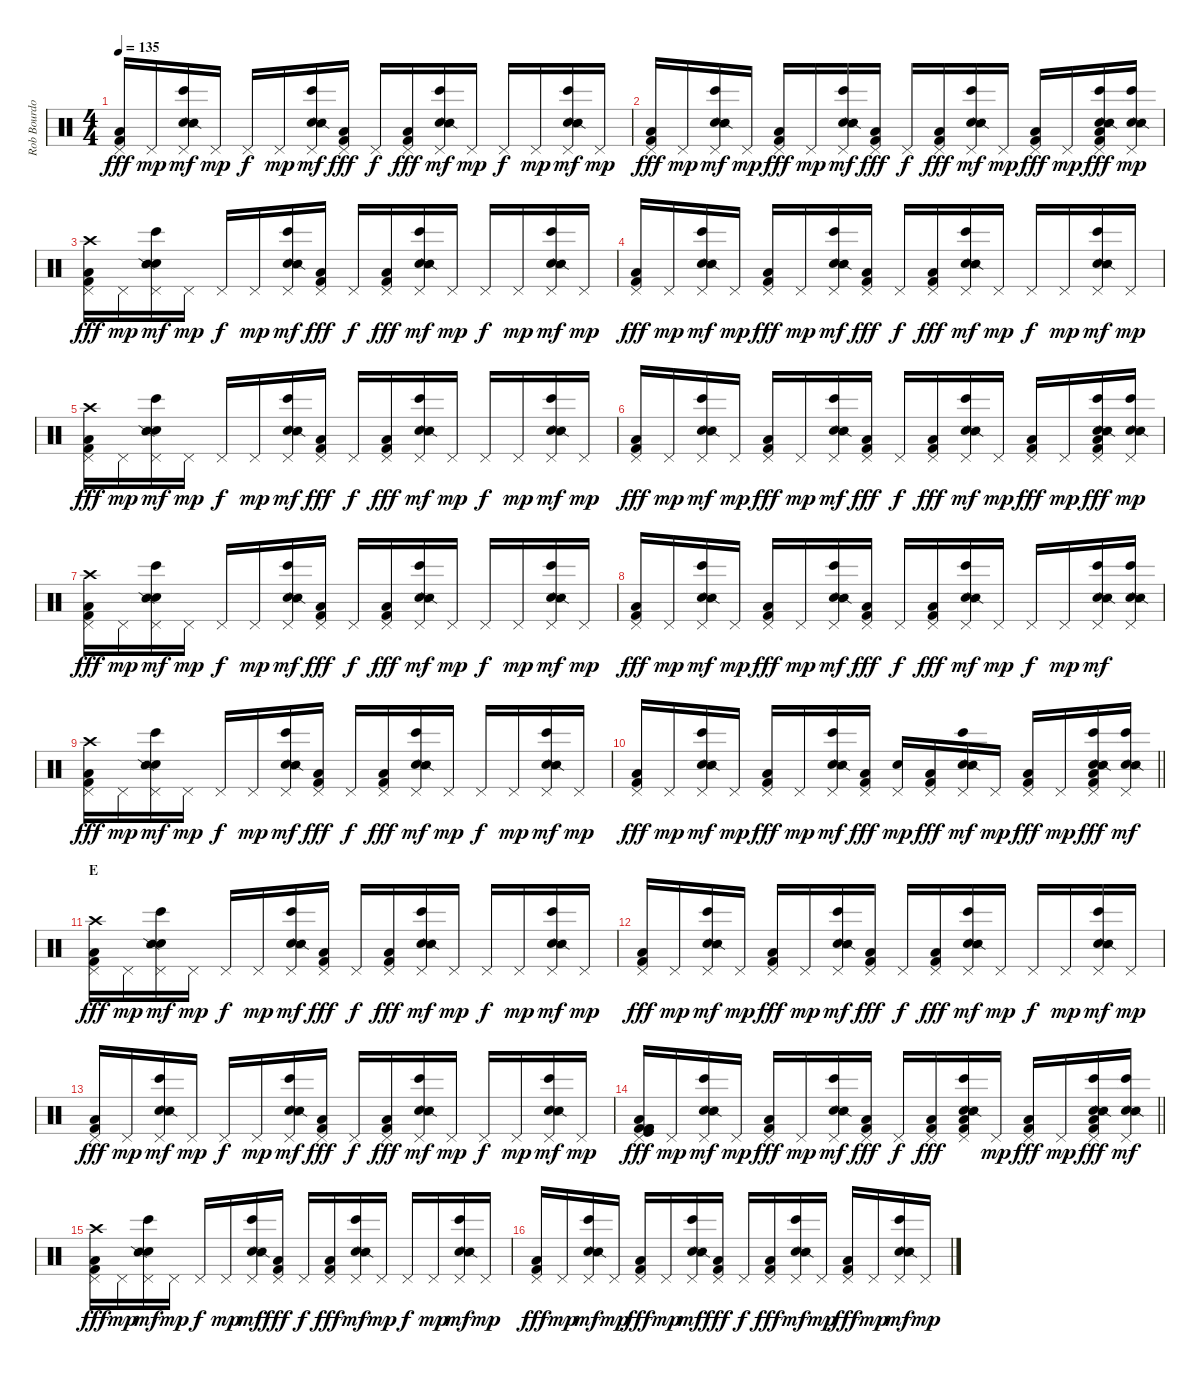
\track ("Rob Bourdon - Beats & Drums" "Rob Bourdo") {instrument percussion}
\staff {score}
\articulation defaults
\ts (4 4)
\tempo 135
\clef neutral
\ks c
("Low Floor Tom (hit)" "Pedal Hi-Hat (hit)" "Kick (hit) 2").16{dy fff} "Pedal Hi-Hat (hit)".16{dy mp} ("Bongo High (hit)" "Electric Snare (hit)" "Snare (side stick) 2" "Pedal Hi-Hat (hit)").16{dy mf} "Pedal Hi-Hat (hit)".16{dy mp} "Pedal Hi-Hat (hit)".16{dy f} "Pedal Hi-Hat (hit)".16{dy mp} ("Bongo High (hit)" "Electric Snare (hit)" "Snare (side stick) 2" "Pedal Hi-Hat (hit)").16{dy mf} ("Low Floor Tom (hit)" "Pedal Hi-Hat (hit)" "Kick (hit) 2").16{dy fff} "Pedal Hi-Hat (hit)".16{dy f} ("Low Floor Tom (hit)" "Pedal Hi-Hat (hit)" "Kick (hit) 2").16{dy fff} ("Bongo High (hit)" "Electric Snare (hit)" "Snare (side stick) 2" "Pedal Hi-Hat (hit)").16{dy mf} "Pedal Hi-Hat (hit)".16{dy mp} "Pedal Hi-Hat (hit)".16{dy f} "Pedal Hi-Hat (hit)".16{dy mp} ("Bongo High (hit)" "Electric Snare (hit)" "Snare (side stick) 2" "Pedal Hi-Hat (hit)").16{dy mf} "Pedal Hi-Hat (hit)".16{dy mp} |
("Low Floor Tom (hit)" "Pedal Hi-Hat (hit)" "Kick (hit) 2").16{dy fff} "Pedal Hi-Hat (hit)".16{dy mp} ("Bongo High (hit)" "Electric Snare (hit)" "Snare (side stick) 2" "Pedal Hi-Hat (hit)").16{dy mf} "Pedal Hi-Hat (hit)".16{dy mp} ("Low Floor Tom (hit)" "Pedal Hi-Hat (hit)" "Kick (hit) 2").16{dy fff} "Pedal Hi-Hat (hit)".16{dy mp} ("Bongo High (hit)" "Electric Snare (hit)" "Snare (side stick) 2" "Pedal Hi-Hat (hit)").16{dy mf} ("Low Floor Tom (hit)" "Pedal Hi-Hat (hit)" "Kick (hit) 2").16{dy fff} "Pedal Hi-Hat (hit)".16{dy f} ("Low Floor Tom (hit)" "Pedal Hi-Hat (hit)" "Kick (hit) 2").16{dy fff} ("Bongo High (hit)" "Electric Snare (hit)" "Snare (side stick) 2" "Pedal Hi-Hat (hit)").16{dy mf} "Pedal Hi-Hat (hit)".16{dy mp} ("Low Floor Tom (hit)" "Pedal Hi-Hat (hit)" "Kick (hit) 2").16{dy fff} "Pedal Hi-Hat (hit)".16{dy mp} ("Low Floor Tom (hit)" "Bongo High (hit)" "Electric Snare (hit)" "Snare (side stick) 2" "Pedal Hi-Hat (hit)" "Kick (hit) 2").16{dy fff} ("Bongo High (hit)" "Electric Snare (hit)" "Snare (side stick) 2" "Pedal Hi-Hat (hit)").16{dy mp} |
("Crash high (hit)" "Low Floor Tom (hit)" "Pedal Hi-Hat (hit)" "Kick (hit) 2").16{dy fff} "Pedal Hi-Hat (hit)".16{dy mp} ("Bongo High (hit)" "Electric Snare (hit)" "Snare (side stick) 2" "Pedal Hi-Hat (hit)").16{dy mf} "Pedal Hi-Hat (hit)".16{dy mp} "Pedal Hi-Hat (hit)".16{dy f} "Pedal Hi-Hat (hit)".16{dy mp} ("Bongo High (hit)" "Electric Snare (hit)" "Snare (side stick) 2" "Pedal Hi-Hat (hit)").16{dy mf} ("Low Floor Tom (hit)" "Pedal Hi-Hat (hit)" "Kick (hit) 2").16{dy fff} "Pedal Hi-Hat (hit)".16{dy f} ("Low Floor Tom (hit)" "Pedal Hi-Hat (hit)" "Kick (hit) 2").16{dy fff} ("Bongo High (hit)" "Electric Snare (hit)" "Snare (side stick) 2" "Pedal Hi-Hat (hit)").16{dy mf} "Pedal Hi-Hat (hit)".16{dy mp} "Pedal Hi-Hat (hit)".16{dy f} "Pedal Hi-Hat (hit)".16{dy mp} ("Bongo High (hit)" "Electric Snare (hit)" "Snare (side stick) 2" "Pedal Hi-Hat (hit)").16{dy mf} "Pedal Hi-Hat (hit)".16{dy mp} |
("Low Floor Tom (hit)" "Pedal Hi-Hat (hit)" "Kick (hit) 2").16{dy fff} "Pedal Hi-Hat (hit)".16{dy mp} ("Bongo High (hit)" "Electric Snare (hit)" "Snare (side stick) 2" "Pedal Hi-Hat (hit)").16{dy mf} "Pedal Hi-Hat (hit)".16{dy mp} ("Low Floor Tom (hit)" "Pedal Hi-Hat (hit)" "Kick (hit) 2").16{dy fff} "Pedal Hi-Hat (hit)".16{dy mp} ("Bongo High (hit)" "Electric Snare (hit)" "Snare (side stick) 2" "Pedal Hi-Hat (hit)").16{dy mf} ("Low Floor Tom (hit)" "Pedal Hi-Hat (hit)" "Kick (hit) 2").16{dy fff} "Pedal Hi-Hat (hit)".16{dy f} ("Low Floor Tom (hit)" "Pedal Hi-Hat (hit)" "Kick (hit) 2").16{dy fff} ("Bongo High (hit)" "Electric Snare (hit)" "Snare (side stick) 2" "Pedal Hi-Hat (hit)").16{dy mf} "Pedal Hi-Hat (hit)".16{dy mp} "Pedal Hi-Hat (hit)".16{dy f} "Pedal Hi-Hat (hit)".16{dy mp} ("Bongo High (hit)" "Electric Snare (hit)" "Snare (side stick) 2" "Pedal Hi-Hat (hit)").16{dy mf} "Pedal Hi-Hat (hit)".16{dy mp} |
("Crash high (hit)" "Low Floor Tom (hit)" "Pedal Hi-Hat (hit)" "Kick (hit) 2").16{dy fff} "Pedal Hi-Hat (hit)".16{dy mp} ("Bongo High (hit)" "Electric Snare (hit)" "Snare (side stick) 2" "Pedal Hi-Hat (hit)").16{dy mf} "Pedal Hi-Hat (hit)".16{dy mp} "Pedal Hi-Hat (hit)".16{dy f} "Pedal Hi-Hat (hit)".16{dy mp} ("Bongo High (hit)" "Electric Snare (hit)" "Snare (side stick) 2" "Pedal Hi-Hat (hit)").16{dy mf} ("Low Floor Tom (hit)" "Pedal Hi-Hat (hit)" "Kick (hit) 2").16{dy fff} "Pedal Hi-Hat (hit)".16{dy f} ("Low Floor Tom (hit)" "Pedal Hi-Hat (hit)" "Kick (hit) 2").16{dy fff} ("Bongo High (hit)" "Electric Snare (hit)" "Snare (side stick) 2" "Pedal Hi-Hat (hit)").16{dy mf} "Pedal Hi-Hat (hit)".16{dy mp} "Pedal Hi-Hat (hit)".16{dy f} "Pedal Hi-Hat (hit)".16{dy mp} ("Bongo High (hit)" "Electric Snare (hit)" "Snare (side stick) 2" "Pedal Hi-Hat (hit)").16{dy mf} "Pedal Hi-Hat (hit)".16{dy mp} |
("Low Floor Tom (hit)" "Pedal Hi-Hat (hit)" "Kick (hit) 2").16{dy fff} "Pedal Hi-Hat (hit)".16{dy mp} ("Bongo High (hit)" "Electric Snare (hit)" "Snare (side stick) 2" "Pedal Hi-Hat (hit)").16{dy mf} "Pedal Hi-Hat (hit)".16{dy mp} ("Low Floor Tom (hit)" "Pedal Hi-Hat (hit)" "Kick (hit) 2").16{dy fff} "Pedal Hi-Hat (hit)".16{dy mp} ("Bongo High (hit)" "Electric Snare (hit)" "Snare (side stick) 2" "Pedal Hi-Hat (hit)").16{dy mf} ("Low Floor Tom (hit)" "Pedal Hi-Hat (hit)" "Kick (hit) 2").16{dy fff} "Pedal Hi-Hat (hit)".16{dy f} ("Low Floor Tom (hit)" "Pedal Hi-Hat (hit)" "Kick (hit) 2").16{dy fff} ("Bongo High (hit)" "Electric Snare (hit)" "Snare (side stick) 2" "Pedal Hi-Hat (hit)").16{dy mf} "Pedal Hi-Hat (hit)".16{dy mp} ("Low Floor Tom (hit)" "Pedal Hi-Hat (hit)" "Kick (hit) 2").16{dy fff} "Pedal Hi-Hat (hit)".16{dy mp} ("Low Floor Tom (hit)" "Bongo High (hit)" "Electric Snare (hit)" "Snare (side stick) 2" "Pedal Hi-Hat (hit)" "Kick (hit) 2").16{dy fff} ("Bongo High (hit)" "Electric Snare (hit)" "Snare (side stick) 2" "Pedal Hi-Hat (hit)").16{dy mp} |
("Crash high (hit)" "Low Floor Tom (hit)" "Pedal Hi-Hat (hit)" "Kick (hit) 2").16{dy fff} "Pedal Hi-Hat (hit)".16{dy mp} ("Bongo High (hit)" "Electric Snare (hit)" "Snare (side stick) 2" "Pedal Hi-Hat (hit)").16{dy mf} "Pedal Hi-Hat (hit)".16{dy mp} "Pedal Hi-Hat (hit)".16{dy f} "Pedal Hi-Hat (hit)".16{dy mp} ("Bongo High (hit)" "Electric Snare (hit)" "Snare (side stick) 2" "Pedal Hi-Hat (hit)").16{dy mf} ("Low Floor Tom (hit)" "Pedal Hi-Hat (hit)" "Kick (hit) 2").16{dy fff} "Pedal Hi-Hat (hit)".16{dy f} ("Low Floor Tom (hit)" "Pedal Hi-Hat (hit)" "Kick (hit) 2").16{dy fff} ("Bongo High (hit)" "Electric Snare (hit)" "Snare (side stick) 2" "Pedal Hi-Hat (hit)").16{dy mf} "Pedal Hi-Hat (hit)".16{dy mp} "Pedal Hi-Hat (hit)".16{dy f} "Pedal Hi-Hat (hit)".16{dy mp} ("Bongo High (hit)" "Electric Snare (hit)" "Snare (side stick) 2" "Pedal Hi-Hat (hit)").16{dy mf} "Pedal Hi-Hat (hit)".16{dy mp} |
("Low Floor Tom (hit)" "Pedal Hi-Hat (hit)" "Kick (hit) 2").16{dy fff} "Pedal Hi-Hat (hit)".16{dy mp} ("Bongo High (hit)" "Electric Snare (hit)" "Snare (side stick) 2" "Pedal Hi-Hat (hit)").16{dy mf} "Pedal Hi-Hat (hit)".16{dy mp} ("Low Floor Tom (hit)" "Pedal Hi-Hat (hit)" "Kick (hit) 2").16{dy fff} "Pedal Hi-Hat (hit)".16{dy mp} ("Bongo High (hit)" "Electric Snare (hit)" "Snare (side stick) 2" "Pedal Hi-Hat (hit)").16{dy mf} ("Low Floor Tom (hit)" "Pedal Hi-Hat (hit)" "Kick (hit) 2").16{dy fff} "Pedal Hi-Hat (hit)".16{dy f} ("Low Floor Tom (hit)" "Pedal Hi-Hat (hit)" "Kick (hit) 2").16{dy fff} ("Bongo High (hit)" "Electric Snare (hit)" "Snare (side stick) 2" "Pedal Hi-Hat (hit)").16{dy mf} "Pedal Hi-Hat (hit)".16{dy mp} "Pedal Hi-Hat (hit)".16{dy f} "Pedal Hi-Hat (hit)".16{dy mp} ("Bongo High (hit)" "Electric Snare (hit)" "Snare (side stick) 2" "Pedal Hi-Hat (hit)").16{dy mf} ("Bongo High (hit)" "Electric Snare (hit)" "Snare (side stick) 2" "Pedal Hi-Hat (hit)").16 |
("Crash high (hit)" "Low Floor Tom (hit)" "Pedal Hi-Hat (hit)" "Kick (hit) 2").16{dy fff} "Pedal Hi-Hat (hit)".16{dy mp} ("Bongo High (hit)" "Electric Snare (hit)" "Snare (side stick) 2" "Pedal Hi-Hat (hit)").16{dy mf} "Pedal Hi-Hat (hit)".16{dy mp} "Pedal Hi-Hat (hit)".16{dy f} "Pedal Hi-Hat (hit)".16{dy mp} ("Bongo High (hit)" "Electric Snare (hit)" "Snare (side stick) 2" "Pedal Hi-Hat (hit)").16{dy mf} ("Low Floor Tom (hit)" "Pedal Hi-Hat (hit)" "Kick (hit) 2").16{dy fff} "Pedal Hi-Hat (hit)".16{dy f} ("Low Floor Tom (hit)" "Pedal Hi-Hat (hit)" "Kick (hit) 2").16{dy fff} ("Bongo High (hit)" "Electric Snare (hit)" "Snare (side stick) 2" "Pedal Hi-Hat (hit)").16{dy mf} "Pedal Hi-Hat (hit)".16{dy mp} "Pedal Hi-Hat (hit)".16{dy f} "Pedal Hi-Hat (hit)".16{dy mp} ("Bongo High (hit)" "Electric Snare (hit)" "Snare (side stick) 2" "Pedal Hi-Hat (hit)").16{dy mf} "Pedal Hi-Hat (hit)".16{dy mp} |
\barLineRight lightlight
("Low Floor Tom (hit)" "Pedal Hi-Hat (hit)" "Kick (hit) 2").16{dy fff} "Pedal Hi-Hat (hit)".16{dy mp} ("Bongo High (hit)" "Electric Snare (hit)" "Snare (side stick) 2" "Pedal Hi-Hat (hit)").16{dy mf} "Pedal Hi-Hat (hit)".16{dy mp} ("Low Floor Tom (hit)" "Pedal Hi-Hat (hit)" "Kick (hit) 2").16{dy fff} "Pedal Hi-Hat (hit)".16{dy mp} ("Bongo High (hit)" "Electric Snare (hit)" "Snare (side stick) 2" "Pedal Hi-Hat (hit)").16{dy mf} ("Low Floor Tom (hit)" "Pedal Hi-Hat (hit)" "Kick (hit) 2").16{dy fff} ("Electric Snare (hit)" "Pedal Hi-Hat (hit)").16{dy mp} ("Low Floor Tom (hit)" "Pedal Hi-Hat (hit)" "Kick (hit) 2").16{dy fff} ("Bongo High (hit)" "Electric Snare (hit)" "Snare (side stick) 2" "Pedal Hi-Hat (hit)").16{dy mf} "Pedal Hi-Hat (hit)".16{dy mp} ("Low Floor Tom (hit)" "Pedal Hi-Hat (hit)" "Kick (hit) 2").16{dy fff} "Pedal Hi-Hat (hit)".16{dy mp} ("Low Floor Tom (hit)" "Bongo High (hit)" "Electric Snare (hit)" "Snare (side stick) 2" "Pedal Hi-Hat (hit)" "Kick (hit) 2").16{dy fff} ("Bongo High (hit)" "Electric Snare (hit)" "Snare (side stick) 2" "Pedal Hi-Hat (hit)").16{dy mf} |
\section ("" "E")
("Crash high (hit)" "Low Floor Tom (hit)" "Pedal Hi-Hat (hit)" "Kick (hit) 2").16{dy fff} "Pedal Hi-Hat (hit)".16{dy mp} ("Bongo High (hit)" "Electric Snare (hit)" "Snare (side stick) 2" "Pedal Hi-Hat (hit)").16{dy mf} "Pedal Hi-Hat (hit)".16{dy mp} "Pedal Hi-Hat (hit)".16{dy f} "Pedal Hi-Hat (hit)".16{dy mp} ("Bongo High (hit)" "Electric Snare (hit)" "Snare (side stick) 2" "Pedal Hi-Hat (hit)").16{dy mf} ("Low Floor Tom (hit)" "Pedal Hi-Hat (hit)" "Kick (hit) 2").16{dy fff} "Pedal Hi-Hat (hit)".16{dy f} ("Low Floor Tom (hit)" "Pedal Hi-Hat (hit)" "Kick (hit) 2").16{dy fff} ("Bongo High (hit)" "Electric Snare (hit)" "Snare (side stick) 2" "Pedal Hi-Hat (hit)").16{dy mf} "Pedal Hi-Hat (hit)".16{dy mp} "Pedal Hi-Hat (hit)".16{dy f} "Pedal Hi-Hat (hit)".16{dy mp} ("Bongo High (hit)" "Electric Snare (hit)" "Snare (side stick) 2" "Pedal Hi-Hat (hit)").16{dy mf} "Pedal Hi-Hat (hit)".16{dy mp} |
("Low Floor Tom (hit)" "Pedal Hi-Hat (hit)" "Kick (hit) 2").16{dy fff} "Pedal Hi-Hat (hit)".16{dy mp} ("Bongo High (hit)" "Electric Snare (hit)" "Snare (side stick) 2" "Pedal Hi-Hat (hit)").16{dy mf} "Pedal Hi-Hat (hit)".16{dy mp} ("Low Floor Tom (hit)" "Pedal Hi-Hat (hit)" "Kick (hit) 2").16{dy fff} "Pedal Hi-Hat (hit)".16{dy mp} ("Bongo High (hit)" "Electric Snare (hit)" "Snare (side stick) 2" "Pedal Hi-Hat (hit)").16{dy mf} ("Low Floor Tom (hit)" "Pedal Hi-Hat (hit)" "Kick (hit) 2").16{dy fff} "Pedal Hi-Hat (hit)".16{dy f} ("Low Floor Tom (hit)" "Pedal Hi-Hat (hit)" "Kick (hit) 2").16{dy fff} ("Bongo High (hit)" "Electric Snare (hit)" "Snare (side stick) 2" "Pedal Hi-Hat (hit)").16{dy mf} "Pedal Hi-Hat (hit)".16{dy mp} "Pedal Hi-Hat (hit)".16{dy f} "Pedal Hi-Hat (hit)".16{dy mp} ("Bongo High (hit)" "Electric Snare (hit)" "Snare (side stick) 2" "Pedal Hi-Hat (hit)").16{dy mf} "Pedal Hi-Hat (hit)".16{dy mp} |
("Low Floor Tom (hit)" "Pedal Hi-Hat (hit)" "Kick (hit) 2").16{dy fff} "Pedal Hi-Hat (hit)".16{dy mp} ("Bongo High (hit)" "Electric Snare (hit)" "Snare (side stick) 2" "Pedal Hi-Hat (hit)").16{dy mf} "Pedal Hi-Hat (hit)".16{dy mp} "Pedal Hi-Hat (hit)".16{dy f} "Pedal Hi-Hat (hit)".16{dy mp} ("Bongo High (hit)" "Electric Snare (hit)" "Snare (side stick) 2" "Pedal Hi-Hat (hit)").16{dy mf} ("Low Floor Tom (hit)" "Pedal Hi-Hat (hit)" "Kick (hit) 2").16{dy fff} "Pedal Hi-Hat (hit)".16{dy f} ("Low Floor Tom (hit)" "Pedal Hi-Hat (hit)" "Kick (hit) 2").16{dy fff} ("Bongo High (hit)" "Electric Snare (hit)" "Snare (side stick) 2" "Pedal Hi-Hat (hit)").16{dy mf} "Pedal Hi-Hat (hit)".16{dy mp} "Pedal Hi-Hat (hit)".16{dy f} "Pedal Hi-Hat (hit)".16{dy mp} ("Bongo High (hit)" "Electric Snare (hit)" "Snare (side stick) 2" "Pedal Hi-Hat (hit)").16{dy mf} "Pedal Hi-Hat (hit)".16{dy mp} |
\barLineRight lightlight
("Low Floor Tom (hit)" "Kick (hit) 2" "Kick (hit) 2" "Kick (hit)" "Pedal Hi-Hat (hit)" "Kick (hit) 2").16{dy fff} "Pedal Hi-Hat (hit)".16{dy mp} ("Bongo High (hit)" "Electric Snare (hit)" "Snare (side stick) 2" "Pedal Hi-Hat (hit)").16{dy mf} "Pedal Hi-Hat (hit)".16{dy mp} ("Low Floor Tom (hit)" "Pedal Hi-Hat (hit)" "Kick (hit) 2").16{dy fff} "Pedal Hi-Hat (hit)".16{dy mp} ("Bongo High (hit)" "Electric Snare (hit)" "Snare (side stick) 2" "Pedal Hi-Hat (hit)").16{dy mf} ("Low Floor Tom (hit)" "Pedal Hi-Hat (hit)" "Kick (hit) 2").16{dy fff} "Pedal Hi-Hat (hit)".16{dy f} ("Low Floor Tom (hit)" "Pedal Hi-Hat (hit)" "Kick (hit) 2").16{dy fff} ("Low Floor Tom (hit)" "Bongo High (hit)" "Electric Snare (hit)" "Snare (side stick) 2" "Pedal Hi-Hat (hit)" "Kick (hit) 2").16 "Pedal Hi-Hat (hit)".16{dy mp} ("Low Floor Tom (hit)" "Pedal Hi-Hat (hit)" "Kick (hit) 2").16{dy fff} "Pedal Hi-Hat (hit)".16{dy mp} ("Low Floor Tom (hit)" "Bongo High (hit)" "Electric Snare (hit)" "Snare (side stick) 2" "Pedal Hi-Hat (hit)" "Kick (hit) 2").16{dy fff} ("Bongo High (hit)" "Electric Snare (hit)" "Snare (side stick) 2" "Pedal Hi-Hat (hit)").16{dy mf} |
("Crash high (hit)" "Low Floor Tom (hit)" "Pedal Hi-Hat (hit)" "Kick (hit) 2").16{dy fff} "Pedal Hi-Hat (hit)".16{dy mp} ("Bongo High (hit)" "Electric Snare (hit)" "Snare (side stick) 2" "Pedal Hi-Hat (hit)").16{dy mf} "Pedal Hi-Hat (hit)".16{dy mp} "Pedal Hi-Hat (hit)".16{dy f} "Pedal Hi-Hat (hit)".16{dy mp} ("Bongo High (hit)" "Electric Snare (hit)" "Snare (side stick) 2" "Pedal Hi-Hat (hit)").16{dy mf} ("Low Floor Tom (hit)" "Pedal Hi-Hat (hit)" "Kick (hit) 2").16{dy fff} "Pedal Hi-Hat (hit)".16{dy f} ("Low Floor Tom (hit)" "Pedal Hi-Hat (hit)" "Kick (hit) 2").16{dy fff} ("Bongo High (hit)" "Electric Snare (hit)" "Snare (side stick) 2" "Pedal Hi-Hat (hit)").16{dy mf} "Pedal Hi-Hat (hit)".16{dy mp} "Pedal Hi-Hat (hit)".16{dy f} "Pedal Hi-Hat (hit)".16{dy mp} ("Bongo High (hit)" "Electric Snare (hit)" "Snare (side stick) 2" "Pedal Hi-Hat (hit)").16{dy mf} "Pedal Hi-Hat (hit)".16{dy mp} |
("Low Floor Tom (hit)" "Pedal Hi-Hat (hit)" "Kick (hit) 2").16{dy fff} "Pedal Hi-Hat (hit)".16{dy mp} ("Bongo High (hit)" "Electric Snare (hit)" "Snare (side stick) 2" "Pedal Hi-Hat (hit)").16{dy mf} "Pedal Hi-Hat (hit)".16{dy mp} ("Low Floor Tom (hit)" "Pedal Hi-Hat (hit)" "Kick (hit) 2").16{dy fff} "Pedal Hi-Hat (hit)".16{dy mp} ("Bongo High (hit)" "Electric Snare (hit)" "Snare (side stick) 2" "Pedal Hi-Hat (hit)").16{dy mf} ("Low Floor Tom (hit)" "Pedal Hi-Hat (hit)" "Kick (hit) 2").16{dy fff} "Pedal Hi-Hat (hit)".16{dy f} ("Low Floor Tom (hit)" "Pedal Hi-Hat (hit)" "Kick (hit) 2").16{dy fff} ("Bongo High (hit)" "Electric Snare (hit)" "Snare (side stick) 2" "Pedal Hi-Hat (hit)").16{dy mf} "Pedal Hi-Hat (hit)".16{dy mp} ("Low Floor Tom (hit)" "Pedal Hi-Hat (hit)" "Kick (hit) 2").16{dy fff} "Pedal Hi-Hat (hit)".16{dy mp} ("Bongo High (hit)" "Electric Snare (hit)" "Snare (side stick) 2" "Pedal Hi-Hat (hit)").16{dy mf} "Pedal Hi-Hat (hit)".16{dy mp}
